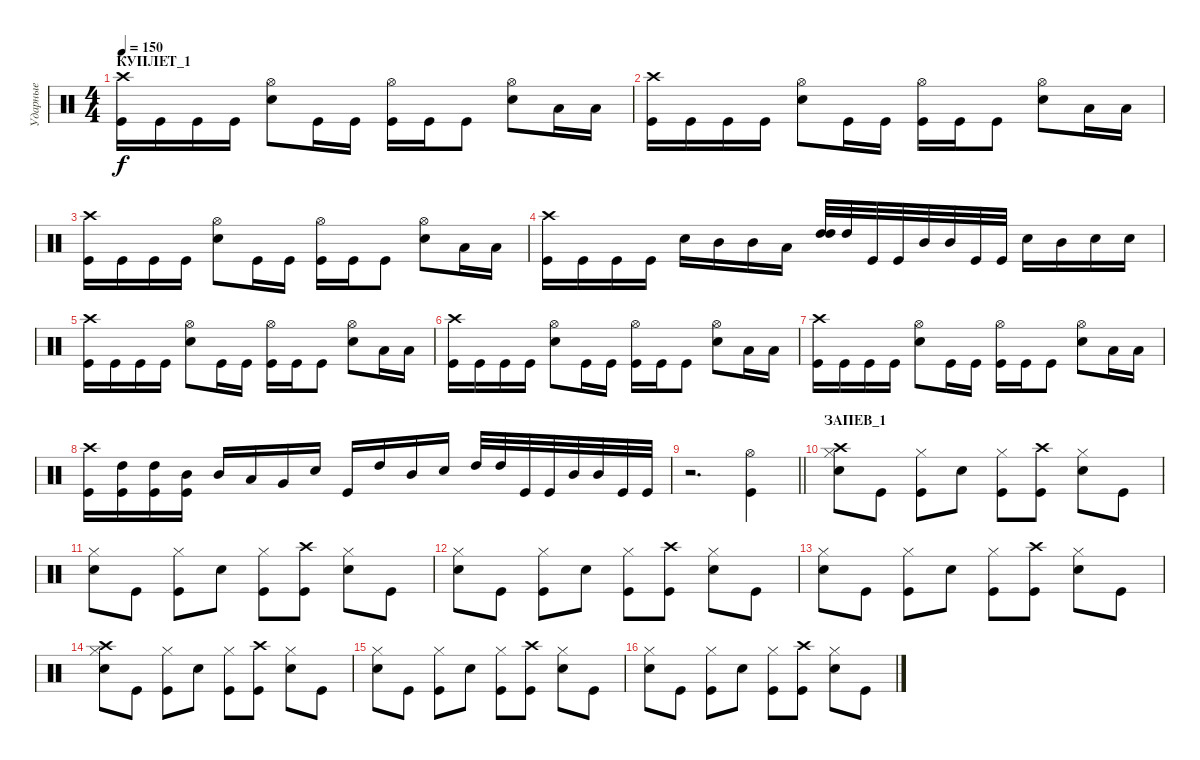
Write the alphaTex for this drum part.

\track ("Ударные" "Ударные") {instrument percussion}
\staff {score}
\articulation defaults
\ts (4 4)
\section ("" "КУПЛЕТ_1")
\tempo 150
\clef neutral
\ks c
("Kick (hit)" "Crash high (hit)").16{dy f} "Kick (hit)".16 "Kick (hit)".16 "Kick (hit)".16 ("Snare (hit) 2" "Hi-Hat (open)").8 "Kick (hit)".16 "Kick (hit)".16 ("Kick (hit)" "Hi-Hat (open)").16 "Kick (hit)".16 "Kick (hit)".8 ("Hi-Hat (open)" "Snare (hit) 2").8 "Low Tom (hit)".16 "Low Tom (hit)".16 |
("Kick (hit)" "Crash high (hit)").16 "Kick (hit)".16 "Kick (hit)".16 "Kick (hit)".16 ("Snare (hit) 2" "Hi-Hat (open)").8 "Kick (hit)".16 "Kick (hit)".16 ("Kick (hit)" "Hi-Hat (open)").16 "Kick (hit)".16 "Kick (hit)".8 ("Hi-Hat (open)" "Snare (hit) 2").8 "Low Tom (hit)".16 "Low Tom (hit)".16 |
("Kick (hit)" "Crash high (hit)").16 "Kick (hit)".16 "Kick (hit)".16 "Kick (hit)".16 ("Snare (hit) 2" "Hi-Hat (open)").8 "Kick (hit)".16 "Kick (hit)".16 ("Kick (hit)" "Hi-Hat (open)").16 "Kick (hit)".16 "Kick (hit)".8 ("Hi-Hat (open)" "Snare (hit) 2").8 "Low Tom (hit)".16 "Low Tom (hit)".16 |
("Kick (hit)" "Crash high (hit)").16 "Kick (hit)".16 "Kick (hit)".16 "Kick (hit)".16 "Snare (hit) 2".16 "Mid Tom (hit)".16 "Mid Tom (hit)".16 "Low Tom (hit)".16 ("High Tom (hit)" "High Tom (hit)").32 "High Tom (hit)".32 "Kick (hit)".32 "Kick (hit)".32 "Mid Tom (hit)".32 "Mid Tom (hit)".32 "Kick (hit)".32 "Kick (hit)".32 "Snare (hit) 2".16 "Mid Tom (hit)".16 "Snare (hit) 2".16 "Snare (hit) 2".16 |
("Kick (hit)" "Crash high (hit)").16 "Kick (hit)".16 "Kick (hit)".16 "Kick (hit)".16 ("Snare (hit) 2" "Hi-Hat (open)").8 "Kick (hit)".16 "Kick (hit)".16 ("Kick (hit)" "Hi-Hat (open)").16 "Kick (hit)".16 "Kick (hit)".8 ("Hi-Hat (open)" "Snare (hit) 2").8 "Low Tom (hit)".16 "Low Tom (hit)".16 |
("Kick (hit)" "Crash high (hit)").16 "Kick (hit)".16 "Kick (hit)".16 "Kick (hit)".16 ("Snare (hit) 2" "Hi-Hat (open)").8 "Kick (hit)".16 "Kick (hit)".16 ("Kick (hit)" "Hi-Hat (open)").16 "Kick (hit)".16 "Kick (hit)".8 ("Hi-Hat (open)" "Snare (hit) 2").8 "Low Tom (hit)".16 "Low Tom (hit)".16 |
("Kick (hit)" "Crash high (hit)").16 "Kick (hit)".16 "Kick (hit)".16 "Kick (hit)".16 ("Snare (hit) 2" "Hi-Hat (open)").8 "Kick (hit)".16 "Kick (hit)".16 ("Kick (hit)" "Hi-Hat (open)").16 "Kick (hit)".16 "Kick (hit)".8 ("Hi-Hat (open)" "Snare (hit) 2").8 "Low Tom (hit)".16 "Low Tom (hit)".16 |
("Kick (hit)" "Crash high (hit)").16 ("Kick (hit)" "High Tom (hit)").16 ("Kick (hit)" "High Tom (hit)").16 ("Kick (hit)" "Mid Tom (hit)").16 "Mid Tom (hit)".16 "Low Tom (hit)".16 "Very Low Tom (hit)".16 "Snare (hit) 2".16 "Kick (hit)".16 "High Tom (hit)".16 "Mid Tom (hit)".16 "Snare (hit) 2".16 "High Tom (hit)".32 "High Tom (hit)".32 "Kick (hit)".32 "Kick (hit)".32 "Mid Tom (hit)".32 "Mid Tom (hit)".32 "Kick (hit)".32 "Kick (hit)".32 |
\barLineRight lightlight
r.2{d} ("Hi-Hat (open)" "Kick (hit)").4 |
\section ("" "ЗАПЕВ_1")
("Snare (hit) 2" "Hi-Hat (closed)" "Crash high (hit)").8 "Kick (hit)".8 ("Kick (hit)" "Hi-Hat (closed)").8 "Snare (hit) 2".8 ("Kick (hit)" "Hi-Hat (closed)").8 ("Kick (hit)" "Crash high (hit)").8 ("Snare (hit) 2" "Hi-Hat (closed)").8 "Kick (hit)".8 |
("Snare (hit) 2" "Hi-Hat (closed)").8 "Kick (hit)".8 ("Kick (hit)" "Hi-Hat (closed)").8 "Snare (hit) 2".8 ("Kick (hit)" "Hi-Hat (closed)").8 ("Kick (hit)" "Crash high (hit)").8 ("Snare (hit) 2" "Hi-Hat (closed)").8 "Kick (hit)".8 |
("Snare (hit) 2" "Hi-Hat (closed)").8 "Kick (hit)".8 ("Kick (hit)" "Hi-Hat (closed)").8 "Snare (hit) 2".8 ("Kick (hit)" "Hi-Hat (closed)").8 ("Kick (hit)" "Crash high (hit)").8 ("Snare (hit) 2" "Hi-Hat (closed)").8 "Kick (hit)".8 |
("Snare (hit) 2" "Hi-Hat (closed)").8 "Kick (hit)".8 ("Kick (hit)" "Hi-Hat (closed)").8 "Snare (hit) 2".8 ("Kick (hit)" "Hi-Hat (closed)").8 ("Kick (hit)" "Crash high (hit)").8 ("Snare (hit) 2" "Hi-Hat (closed)").8 "Kick (hit)".8 |
("Snare (hit) 2" "Hi-Hat (closed)" "Crash high (hit)").8 "Kick (hit)".8 ("Kick (hit)" "Hi-Hat (closed)").8 "Snare (hit) 2".8 ("Kick (hit)" "Hi-Hat (closed)").8 ("Kick (hit)" "Crash high (hit)").8 ("Snare (hit) 2" "Hi-Hat (closed)").8 "Kick (hit)".8 |
("Snare (hit) 2" "Hi-Hat (closed)").8 "Kick (hit)".8 ("Kick (hit)" "Hi-Hat (closed)").8 "Snare (hit) 2".8 ("Kick (hit)" "Hi-Hat (closed)").8 ("Kick (hit)" "Crash high (hit)").8 ("Snare (hit) 2" "Hi-Hat (closed)").8 "Kick (hit)".8 |
("Snare (hit) 2" "Hi-Hat (closed)").8 "Kick (hit)".8 ("Kick (hit)" "Hi-Hat (closed)").8 "Snare (hit) 2".8 ("Kick (hit)" "Hi-Hat (closed)").8 ("Kick (hit)" "Crash high (hit)").8 ("Snare (hit) 2" "Hi-Hat (closed)").8 "Kick (hit)".8
